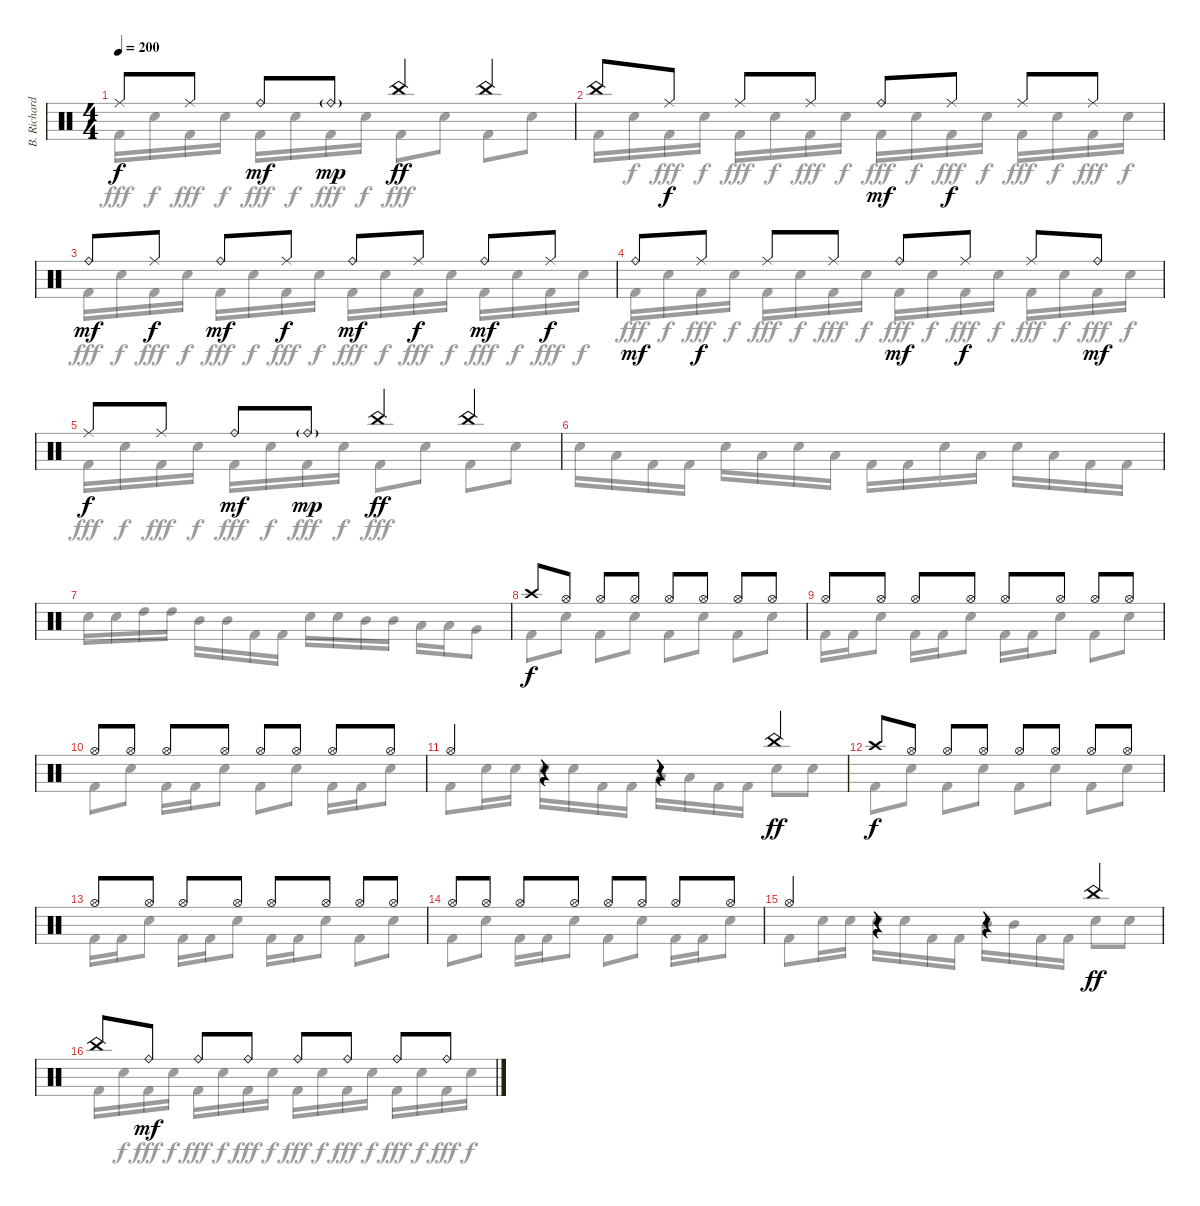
\track ("B. Richardson Drums" "B. Richard") {instrument percussion}
\staff {score}
\articulation defaults
\voice
\ts (4 4)
\tempo 200
\clef neutral
\ks c "Ride (middle)".8{dy f} "Ride (middle)".8 "Ride (bell)".8{dy mf} "Ride (bell)"{g}.8{dy mp} "China (hit)".4{dy ff} "China (hit)".4
|
"China (hit)".8 "Ride (middle)".8{dy f} "Ride (middle)".8 "Ride (middle)".8 "Ride (bell)".8{dy mf} "Ride (middle)".8{dy f} "Ride (middle)".8 "Ride (middle)".8 |
"Ride (bell)".8{dy mf} "Ride (middle)".8{dy f} "Ride (bell)".8{dy mf} "Ride (middle)".8{dy f} "Ride (bell)".8{dy mf} "Ride (middle)".8{dy f} "Ride (bell)".8{dy mf} "Ride (middle)".8{dy f} |
"Ride (bell)".8{dy mf} "Ride (middle)".8{dy f} "Ride (middle)".8 "Ride (middle)".8 "Ride (bell)".8{dy mf} "Ride (middle)".8{dy f} "Ride (middle)".8 "Ride (bell)".8{dy mf} |
"Ride (middle)".8{dy f} "Ride (middle)".8 "Ride (bell)".8{dy mf} "Ride (bell)"{g}.8{dy mp} "China (hit)".4{dy ff} "China (hit)".4 |
|
|
"Crash high (hit)".8{dy f} "Hi-Hat (open)".8 "Hi-Hat (open)".8 "Hi-Hat (open)".8 "Hi-Hat (open)".8 "Hi-Hat (open)".8 "Hi-Hat (open)".8 "Hi-Hat (open)".8 |
"Hi-Hat (open)".8 "Hi-Hat (open)".8 "Hi-Hat (open)".8 "Hi-Hat (open)".8 "Hi-Hat (open)".8 "Hi-Hat (open)".8 "Hi-Hat (open)".8 "Hi-Hat (open)".8 |
"Hi-Hat (open)".8 "Hi-Hat (open)".8 "Hi-Hat (open)".8 "Hi-Hat (open)".8 "Hi-Hat (open)".8 "Hi-Hat (open)".8 "Hi-Hat (open)".8 "Hi-Hat (open)".8 |
"Hi-Hat (open)".4 r.4 r.4 "China (hit)".4{dy ff} |
"Crash high (hit)".8{dy f} "Hi-Hat (open)".8 "Hi-Hat (open)".8 "Hi-Hat (open)".8 "Hi-Hat (open)".8 "Hi-Hat (open)".8 "Hi-Hat (open)".8 "Hi-Hat (open)".8 |
"Hi-Hat (open)".8 "Hi-Hat (open)".8 "Hi-Hat (open)".8 "Hi-Hat (open)".8 "Hi-Hat (open)".8 "Hi-Hat (open)".8 "Hi-Hat (open)".8 "Hi-Hat (open)".8 |
"Hi-Hat (open)".8 "Hi-Hat (open)".8 "Hi-Hat (open)".8 "Hi-Hat (open)".8 "Hi-Hat (open)".8 "Hi-Hat (open)".8 "Hi-Hat (open)".8 "Hi-Hat (open)".8 |
"Hi-Hat (open)".4 r.4 r.4 "China (hit)".4{dy ff} |
"China (hit)".8 "Ride (bell)".8{dy mf} "Ride (bell)".8 "Ride (bell)".8 "Ride (bell)".8 "Ride (bell)".8 "Ride (bell)".8 "Ride (bell)".8
\voice
\clef neutral
\ottava regular
\simile none
\ks c "Kick (hit) 2".16{dy fff} "Electric Snare (hit)".16{dy f} "Kick (hit) 2".16{dy fff} "Electric Snare (hit)".16{dy f} "Kick (hit) 2".16{dy fff} "Electric Snare (hit)".16{dy f} "Kick (hit) 2".16{dy fff} "Electric Snare (hit)".16{dy f} "Kick (hit) 2".8{dy fff} "Electric Snare (hit)".8 "Kick (hit) 2".8 "Electric Snare (hit)".8
|
"Kick (hit) 2".16 "Electric Snare (hit)".16{dy f} "Kick (hit) 2".16{dy fff} "Electric Snare (hit)".16{dy f} "Kick (hit) 2".16{dy fff} "Electric Snare (hit)".16{dy f} "Kick (hit) 2".16{dy fff} "Electric Snare (hit)".16{dy f} "Kick (hit) 2".16{dy fff} "Electric Snare (hit)".16{dy f} "Kick (hit) 2".16{dy fff} "Electric Snare (hit)".16{dy f} "Kick (hit) 2".16{dy fff} "Electric Snare (hit)".16{dy f} "Kick (hit) 2".16{dy fff} "Electric Snare (hit)".16{dy f} |
"Kick (hit) 2".16{dy fff} "Electric Snare (hit)".16{dy f} "Kick (hit) 2".16{dy fff} "Electric Snare (hit)".16{dy f} "Kick (hit) 2".16{dy fff} "Electric Snare (hit)".16{dy f} "Kick (hit) 2".16{dy fff} "Electric Snare (hit)".16{dy f} "Kick (hit) 2".16{dy fff} "Electric Snare (hit)".16{dy f} "Kick (hit) 2".16{dy fff} "Electric Snare (hit)".16{dy f} "Kick (hit) 2".16{dy fff} "Electric Snare (hit)".16{dy f} "Kick (hit) 2".16{dy fff} "Electric Snare (hit)".16{dy f} |
"Kick (hit) 2".16{dy fff} "Electric Snare (hit)".16{dy f} "Kick (hit) 2".16{dy fff} "Electric Snare (hit)".16{dy f} "Kick (hit) 2".16{dy fff} "Electric Snare (hit)".16{dy f} "Kick (hit) 2".16{dy fff} "Electric Snare (hit)".16{dy f} "Kick (hit) 2".16{dy fff} "Electric Snare (hit)".16{dy f} "Kick (hit) 2".16{dy fff} "Electric Snare (hit)".16{dy f} "Kick (hit) 2".16{dy fff} "Electric Snare (hit)".16{dy f} "Kick (hit) 2".16{dy fff} "Electric Snare (hit)".16{dy f} |
"Kick (hit) 2".16{dy fff} "Electric Snare (hit)".16{dy f} "Kick (hit) 2".16{dy fff} "Electric Snare (hit)".16{dy f} "Kick (hit) 2".16{dy fff} "Electric Snare (hit)".16{dy f} "Kick (hit) 2".16{dy fff} "Electric Snare (hit)".16{dy f} "Kick (hit) 2".8{dy fff} "Electric Snare (hit)".8 "Kick (hit) 2".8 "Electric Snare (hit)".8 |
"Electric Snare (hit)".16 "Low Tom (hit)".16 "Kick (hit) 2".16 "Kick (hit) 2".16 "Electric Snare (hit)".16 "Low Tom (hit)".16 "Electric Snare (hit)".16 "Low Tom (hit)".16 "Kick (hit) 2".16 "Kick (hit) 2".16 "Electric Snare (hit)".16 "Low Tom (hit)".16 "Electric Snare (hit)".16 "Low Tom (hit)".16 "Kick (hit) 2".16 "Kick (hit) 2".16 |
"Electric Snare (hit)".16 "Electric Snare (hit)".16 "High Tom (hit)".16 "High Tom (hit)".16 "Mid Tom (hit)".16 "Mid Tom (hit)".16 "Kick (hit) 2".16 "Kick (hit) 2".16 "Electric Snare (hit)".16 "Electric Snare (hit)".16 "Mid Tom (hit)".16 "Mid Tom (hit)".16 "Low Tom (hit)".16 "Low Tom (hit)".16 "Very Low Tom (hit)".8 |
"Kick (hit) 2".8 "Electric Snare (hit)".8 "Kick (hit) 2".8 "Electric Snare (hit)".8 "Kick (hit) 2".8 "Electric Snare (hit)".8 "Kick (hit) 2".8 "Electric Snare (hit)".8 |
"Kick (hit) 2".16 "Kick (hit) 2".16 "Electric Snare (hit)".8 "Kick (hit) 2".16 "Kick (hit) 2".16 "Electric Snare (hit)".8 "Kick (hit) 2".16 "Kick (hit) 2".16 "Electric Snare (hit)".8 "Kick (hit) 2".8 "Electric Snare (hit)".8 |
"Kick (hit) 2".8 "Electric Snare (hit)".8 "Kick (hit) 2".16 "Kick (hit) 2".16 "Electric Snare (hit)".8 "Kick (hit) 2".8 "Electric Snare (hit)".8 "Kick (hit) 2".16 "Kick (hit) 2".16 "Electric Snare (hit)".8 |
"Kick (hit) 2".8 "Electric Snare (hit)".16 "Electric Snare (hit)".16 "Electric Snare (hit)".16 "Electric Snare (hit)".16 "Kick (hit) 2".16 "Kick (hit) 2".16 "Low Tom (hit)".16 "Low Tom (hit)".16 "Kick (hit) 2".16 "Kick (hit) 2".16 "Electric Snare (hit)".8 "Electric Snare (hit)".8 |
"Kick (hit) 2".8 "Electric Snare (hit)".8 "Kick (hit) 2".8 "Electric Snare (hit)".8 "Kick (hit) 2".8 "Electric Snare (hit)".8 "Kick (hit) 2".8 "Electric Snare (hit)".8 |
"Kick (hit) 2".16 "Kick (hit) 2".16 "Electric Snare (hit)".8 "Kick (hit) 2".16 "Kick (hit) 2".16 "Electric Snare (hit)".8 "Kick (hit) 2".16 "Kick (hit) 2".16 "Electric Snare (hit)".8 "Kick (hit) 2".8 "Electric Snare (hit)".8 |
"Kick (hit) 2".8 "Electric Snare (hit)".8 "Kick (hit) 2".16 "Kick (hit) 2".16 "Electric Snare (hit)".8 "Kick (hit) 2".8 "Electric Snare (hit)".8 "Kick (hit) 2".16 "Kick (hit) 2".16 "Electric Snare (hit)".8 |
"Kick (hit) 2".8 "Electric Snare (hit)".16 "Electric Snare (hit)".16 "Electric Snare (hit)".16 "Electric Snare (hit)".16 "Kick (hit) 2".16 "Kick (hit) 2".16 "Mid Tom (hit)".16 "Mid Tom (hit)".16 "Kick (hit) 2".16 "Kick (hit) 2".16 "Electric Snare (hit)".8 "Electric Snare (hit)".8 |
"Kick (hit) 2".16 "Electric Snare (hit)".16{dy f} "Kick (hit) 2".16{dy fff} "Electric Snare (hit)".16{dy f} "Kick (hit) 2".16{dy fff} "Electric Snare (hit)".16{dy f} "Kick (hit) 2".16{dy fff} "Electric Snare (hit)".16{dy f} "Kick (hit) 2".16{dy fff} "Electric Snare (hit)".16{dy f} "Kick (hit) 2".16{dy fff} "Electric Snare (hit)".16{dy f} "Kick (hit) 2".16{dy fff} "Electric Snare (hit)".16{dy f} "Kick (hit) 2".16{dy fff} "Electric Snare (hit)".16{dy f}
